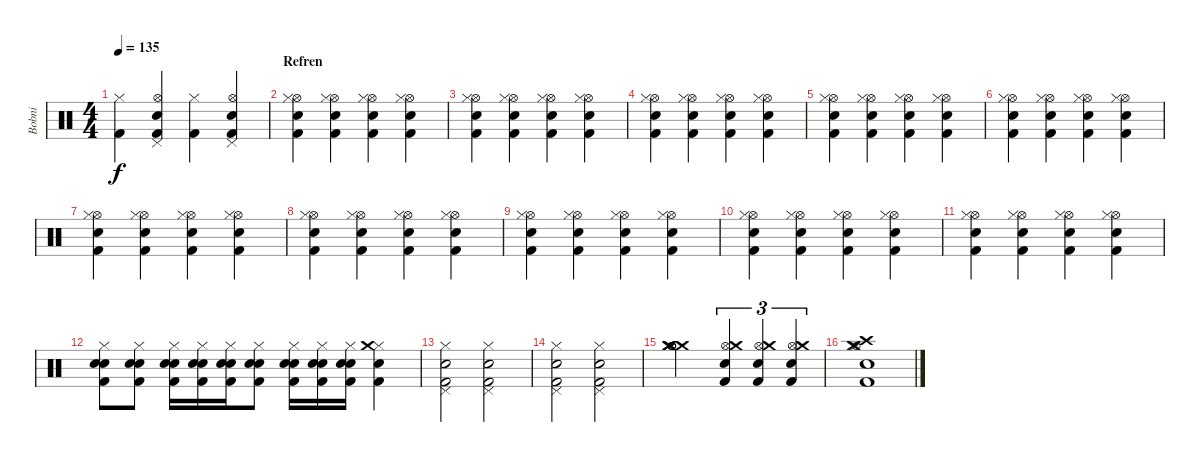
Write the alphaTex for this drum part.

\track ("Bobni" "Bobni") {instrument percussion}
\staff {score}
\articulation defaults
\ts (4 4)
\tempo 135
\clef neutral
\ks c
("Hi-Hat (closed)" "Kick (hit) 2").4{dy f} ("Hi-Hat (open)" "Snare (hit) 2" "Pedal Hi-Hat (hit)" "Kick (hit) 2").4 ("Hi-Hat (closed)" "Kick (hit) 2").4 ("Hi-Hat (open)" "Snare (hit) 2" "Pedal Hi-Hat (hit)" "Kick (hit) 2").4 |
\section ("" "Refren")
("Hi-Hat (open)" "Snare (hit) 2" "Hi-Hat (closed)" "Kick (hit) 2").4 ("Hi-Hat (open)" "Snare (hit) 2" "Hi-Hat (closed)" "Kick (hit) 2").4 ("Hi-Hat (open)" "Snare (hit) 2" "Hi-Hat (closed)" "Kick (hit) 2").4 ("Hi-Hat (open)" "Snare (hit) 2" "Hi-Hat (closed)" "Kick (hit) 2").4 |
("Hi-Hat (open)" "Snare (hit) 2" "Hi-Hat (closed)" "Kick (hit) 2").4 ("Hi-Hat (open)" "Snare (hit) 2" "Hi-Hat (closed)" "Kick (hit) 2").4 ("Hi-Hat (open)" "Snare (hit) 2" "Hi-Hat (closed)" "Kick (hit) 2").4 ("Hi-Hat (open)" "Snare (hit) 2" "Hi-Hat (closed)" "Kick (hit) 2").4 |
("Hi-Hat (open)" "Snare (hit) 2" "Hi-Hat (closed)" "Kick (hit) 2").4 ("Hi-Hat (open)" "Snare (hit) 2" "Hi-Hat (closed)" "Kick (hit) 2").4 ("Hi-Hat (open)" "Snare (hit) 2" "Hi-Hat (closed)" "Kick (hit) 2").4 ("Hi-Hat (open)" "Snare (hit) 2" "Hi-Hat (closed)" "Kick (hit) 2").4 |
("Hi-Hat (open)" "Snare (hit) 2" "Hi-Hat (closed)" "Kick (hit) 2").4 ("Hi-Hat (open)" "Snare (hit) 2" "Hi-Hat (closed)" "Kick (hit) 2").4 ("Hi-Hat (open)" "Snare (hit) 2" "Hi-Hat (closed)" "Kick (hit) 2").4 ("Hi-Hat (open)" "Snare (hit) 2" "Hi-Hat (closed)" "Kick (hit) 2").4 |
("Hi-Hat (open)" "Snare (hit) 2" "Hi-Hat (closed)" "Kick (hit) 2").4 ("Hi-Hat (open)" "Snare (hit) 2" "Hi-Hat (closed)" "Kick (hit) 2").4 ("Hi-Hat (open)" "Snare (hit) 2" "Hi-Hat (closed)" "Kick (hit) 2").4 ("Hi-Hat (open)" "Snare (hit) 2" "Hi-Hat (closed)" "Kick (hit) 2").4 |
("Hi-Hat (open)" "Snare (hit) 2" "Hi-Hat (closed)" "Kick (hit) 2").4 ("Hi-Hat (open)" "Snare (hit) 2" "Hi-Hat (closed)" "Kick (hit) 2").4 ("Hi-Hat (open)" "Snare (hit) 2" "Hi-Hat (closed)" "Kick (hit) 2").4 ("Hi-Hat (open)" "Snare (hit) 2" "Hi-Hat (closed)" "Kick (hit) 2").4 |
("Hi-Hat (open)" "Snare (hit) 2" "Hi-Hat (closed)" "Kick (hit) 2").4 ("Hi-Hat (open)" "Snare (hit) 2" "Hi-Hat (closed)" "Kick (hit) 2").4 ("Hi-Hat (open)" "Snare (hit) 2" "Hi-Hat (closed)" "Kick (hit) 2").4 ("Hi-Hat (open)" "Snare (hit) 2" "Hi-Hat (closed)" "Kick (hit) 2").4 |
("Hi-Hat (open)" "Snare (hit) 2" "Hi-Hat (closed)" "Kick (hit) 2").4 ("Hi-Hat (open)" "Snare (hit) 2" "Hi-Hat (closed)" "Kick (hit) 2").4 ("Hi-Hat (open)" "Snare (hit) 2" "Hi-Hat (closed)" "Kick (hit) 2").4 ("Hi-Hat (open)" "Snare (hit) 2" "Hi-Hat (closed)" "Kick (hit) 2").4 |
("Hi-Hat (open)" "Snare (hit) 2" "Hi-Hat (closed)" "Kick (hit) 2").4 ("Hi-Hat (open)" "Snare (hit) 2" "Hi-Hat (closed)" "Kick (hit) 2").4 ("Hi-Hat (open)" "Snare (hit) 2" "Hi-Hat (closed)" "Kick (hit) 2").4 ("Hi-Hat (open)" "Snare (hit) 2" "Hi-Hat (closed)" "Kick (hit) 2").4 |
("Hi-Hat (open)" "Snare (hit) 2" "Hi-Hat (closed)" "Kick (hit) 2").4 ("Hi-Hat (open)" "Snare (hit) 2" "Hi-Hat (closed)" "Kick (hit) 2").4 ("Hi-Hat (open)" "Snare (hit) 2" "Hi-Hat (closed)" "Kick (hit) 2").4 ("Hi-Hat (open)" "Snare (hit) 2" "Hi-Hat (closed)" "Kick (hit) 2").4 |
("Hi-Hat (closed)" "Snare (hit) 2" "Snare (hit) 2" "Kick (hit) 2").8 ("Hi-Hat (closed)" "Snare (hit) 2" "Snare (hit) 2" "Kick (hit) 2").8 ("Hi-Hat (closed)" "Snare (hit) 2" "Snare (hit) 2" "Kick (hit) 2").16 ("Hi-Hat (closed)" "Snare (hit) 2" "Snare (hit) 2" "Kick (hit) 2").16 ("Hi-Hat (closed)" "Snare (hit) 2" "Snare (hit) 2" "Kick (hit) 2").16 ("Hi-Hat (closed)" "Snare (hit) 2" "Snare (hit) 2" "Kick (hit) 2").8 ("Hi-Hat (closed)" "Snare (hit) 2" "Snare (hit) 2" "Kick (hit) 2").16 ("Hi-Hat (closed)" "Snare (hit) 2" "Snare (hit) 2" "Kick (hit) 2").16 ("Hi-Hat (closed)" "Snare (hit) 2" "Snare (hit) 2" "Kick (hit) 2").16 ("Hi-Hat (closed)" "Snare (hit) 2" "Crash medium (hit)" "Kick (hit) 2").4 |
("Hi-Hat (closed)" "Snare (hit) 2" "Pedal Hi-Hat (hit)" "Kick (hit) 2").2 ("Hi-Hat (closed)" "Snare (hit) 2" "Pedal Hi-Hat (hit)" "Kick (hit) 2").2 |
("Hi-Hat (closed)" "Snare (hit) 2" "Pedal Hi-Hat (hit)" "Kick (hit) 2").2 ("Hi-Hat (closed)" "Snare (hit) 2" "Pedal Hi-Hat (hit)" "Kick (hit) 2").2 |
("Crash medium (hit)" "Hi-Hat (open)" "Crash medium (hit)" "Hi-Hat (open)" "Crash medium (hit)" "Hi-Hat (open)").2 ("Hi-Hat (open)" "Electric Snare (hit)" "Crash medium (hit)" "Kick (hit) 2").4{tu (3 2)} ("Hi-Hat (open)" "Crash medium (hit)" "Electric Snare (hit)" "Kick (hit) 2").4{tu (3 2)} ("Hi-Hat (open)" "Electric Snare (hit)" "Crash medium (hit)" "Kick (hit) 2").4{tu (3 2)} |
("Hi-Hat (closed)" "Electric Snare (hit)" "Crash medium (hit)" "Hi-Hat (open)" "Crash high (hit)" "Kick (hit) 2").1
